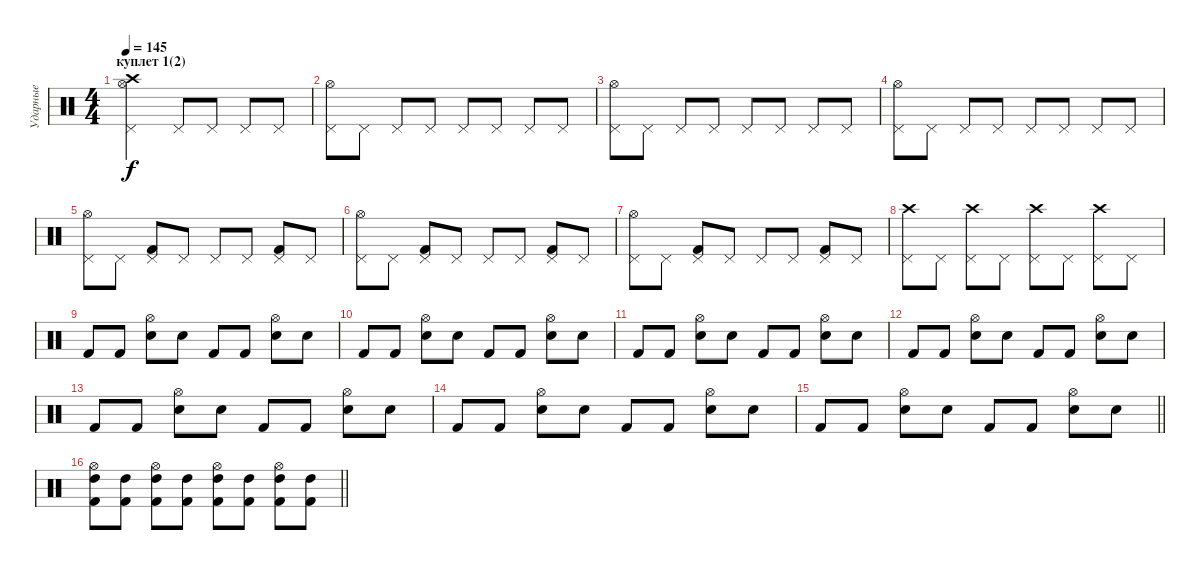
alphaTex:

\track ("Ударные" "Ударные") {instrument percussion}
\staff {score}
\articulation defaults
\ts (4 4)
\section ("" "куплет 1(2)")
\tempo 145
\clef neutral
\ks c
("Crash high (hit)" "Hi-Hat (open)" "Pedal Hi-Hat (hit)").2{dy f} "Pedal Hi-Hat (hit)".8 "Pedal Hi-Hat (hit)".8 "Pedal Hi-Hat (hit)".8 "Pedal Hi-Hat (hit)".8 |
("Hi-Hat (open)" "Pedal Hi-Hat (hit)").8 "Pedal Hi-Hat (hit)".8 "Pedal Hi-Hat (hit)".8 "Pedal Hi-Hat (hit)".8 "Pedal Hi-Hat (hit)".8 "Pedal Hi-Hat (hit)".8 "Pedal Hi-Hat (hit)".8 "Pedal Hi-Hat (hit)".8 |
("Hi-Hat (open)" "Pedal Hi-Hat (hit)").8 "Pedal Hi-Hat (hit)".8 "Pedal Hi-Hat (hit)".8 "Pedal Hi-Hat (hit)".8 "Pedal Hi-Hat (hit)".8 "Pedal Hi-Hat (hit)".8 "Pedal Hi-Hat (hit)".8 "Pedal Hi-Hat (hit)".8 |
("Hi-Hat (open)" "Pedal Hi-Hat (hit)").8 "Pedal Hi-Hat (hit)".8 "Pedal Hi-Hat (hit)".8 "Pedal Hi-Hat (hit)".8 "Pedal Hi-Hat (hit)".8 "Pedal Hi-Hat (hit)".8 "Pedal Hi-Hat (hit)".8 "Pedal Hi-Hat (hit)".8 |
("Hi-Hat (open)" "Pedal Hi-Hat (hit)").8 "Pedal Hi-Hat (hit)".8 ("Pedal Hi-Hat (hit)" "Kick (hit) 2").8 "Pedal Hi-Hat (hit)".8 "Pedal Hi-Hat (hit)".8 "Pedal Hi-Hat (hit)".8 ("Pedal Hi-Hat (hit)" "Kick (hit) 2").8 "Pedal Hi-Hat (hit)".8 |
("Hi-Hat (open)" "Pedal Hi-Hat (hit)").8 "Pedal Hi-Hat (hit)".8 ("Pedal Hi-Hat (hit)" "Kick (hit) 2").8 "Pedal Hi-Hat (hit)".8 "Pedal Hi-Hat (hit)".8 "Pedal Hi-Hat (hit)".8 ("Pedal Hi-Hat (hit)" "Kick (hit) 2").8 "Pedal Hi-Hat (hit)".8 |
("Hi-Hat (open)" "Pedal Hi-Hat (hit)").8 "Pedal Hi-Hat (hit)".8 ("Pedal Hi-Hat (hit)" "Kick (hit) 2").8 "Pedal Hi-Hat (hit)".8 "Pedal Hi-Hat (hit)".8 "Pedal Hi-Hat (hit)".8 ("Pedal Hi-Hat (hit)" "Kick (hit) 2").8 "Pedal Hi-Hat (hit)".8 |
("Crash high (hit)" "Pedal Hi-Hat (hit)").8 "Pedal Hi-Hat (hit)".8 ("Crash high (hit)" "Pedal Hi-Hat (hit)").8 "Pedal Hi-Hat (hit)".8 ("Crash high (hit)" "Pedal Hi-Hat (hit)").8 "Pedal Hi-Hat (hit)".8 ("Crash high (hit)" "Pedal Hi-Hat (hit)").8 "Pedal Hi-Hat (hit)".8 |
"Kick (hit) 2".8 "Kick (hit) 2".8 ("Hi-Hat (open)" "Electric Snare (hit)").8 "Electric Snare (hit)".8 "Kick (hit) 2".8 "Kick (hit) 2".8 ("Hi-Hat (open)" "Electric Snare (hit)").8 "Electric Snare (hit)".8 |
"Kick (hit) 2".8 "Kick (hit) 2".8 ("Hi-Hat (open)" "Electric Snare (hit)").8 "Electric Snare (hit)".8 "Kick (hit) 2".8 "Kick (hit) 2".8 ("Hi-Hat (open)" "Electric Snare (hit)").8 "Electric Snare (hit)".8 |
"Kick (hit) 2".8 "Kick (hit) 2".8 ("Hi-Hat (open)" "Electric Snare (hit)").8 "Electric Snare (hit)".8 "Kick (hit) 2".8 "Kick (hit) 2".8 ("Hi-Hat (open)" "Electric Snare (hit)").8 "Electric Snare (hit)".8 |
"Kick (hit) 2".8 "Kick (hit) 2".8 ("Hi-Hat (open)" "Electric Snare (hit)").8 "Electric Snare (hit)".8 "Kick (hit) 2".8 "Kick (hit) 2".8 ("Hi-Hat (open)" "Electric Snare (hit)").8 "Electric Snare (hit)".8 |
"Kick (hit) 2".8 "Kick (hit) 2".8 ("Hi-Hat (open)" "Electric Snare (hit)").8 "Electric Snare (hit)".8 "Kick (hit) 2".8 "Kick (hit) 2".8 ("Hi-Hat (open)" "Electric Snare (hit)").8 "Electric Snare (hit)".8 |
"Kick (hit) 2".8 "Kick (hit) 2".8 ("Hi-Hat (open)" "Electric Snare (hit)").8 "Electric Snare (hit)".8 "Kick (hit) 2".8 "Kick (hit) 2".8 ("Hi-Hat (open)" "Electric Snare (hit)").8 "Electric Snare (hit)".8 |
\barLineRight lightlight "Kick (hit) 2".8 "Kick (hit) 2".8
("Hi-Hat (open)" "Electric Snare (hit)").8 "Electric Snare (hit)".8 "Kick (hit) 2".8 "Kick (hit) 2".8 ("Hi-Hat (open)" "Electric Snare (hit)").8 "Electric Snare (hit)".8 |
\barLineRight lightlight
("Hi-Hat (open)" "Kick (hit) 2" "High Tom (hit)").8 ("Kick (hit) 2" "High Tom (hit)").8 ("Hi-Hat (open)" "Kick (hit) 2" "High Tom (hit)").8 ("Kick (hit) 2" "High Tom (hit)").8 ("Hi-Hat (open)" "Kick (hit) 2" "High Tom (hit)").8 ("Kick (hit) 2" "High Tom (hit)").8 ("Hi-Hat (open)" "Kick (hit) 2" "High Tom (hit)").8 ("Kick (hit) 2" "High Tom (hit)").8
